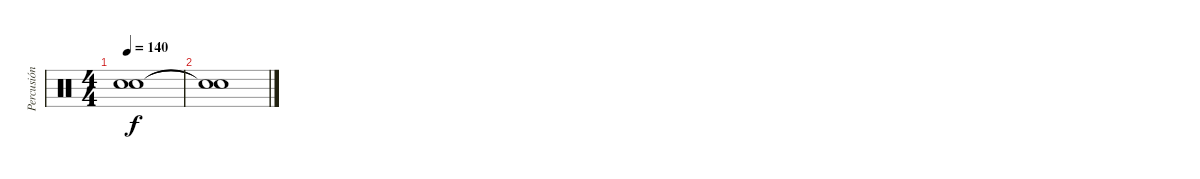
\track ("Percusión" "Percusión") {instrument percussion}
\staff {score}
\articulation defaults
\ts (4 4)
\tempo 140
\clef neutral
\ks c
("Snare (hit)"{t} "Snare (hit)"{t}).1{dy f} |
("Snare (hit)"{t} "Snare (hit)"{t}).1
